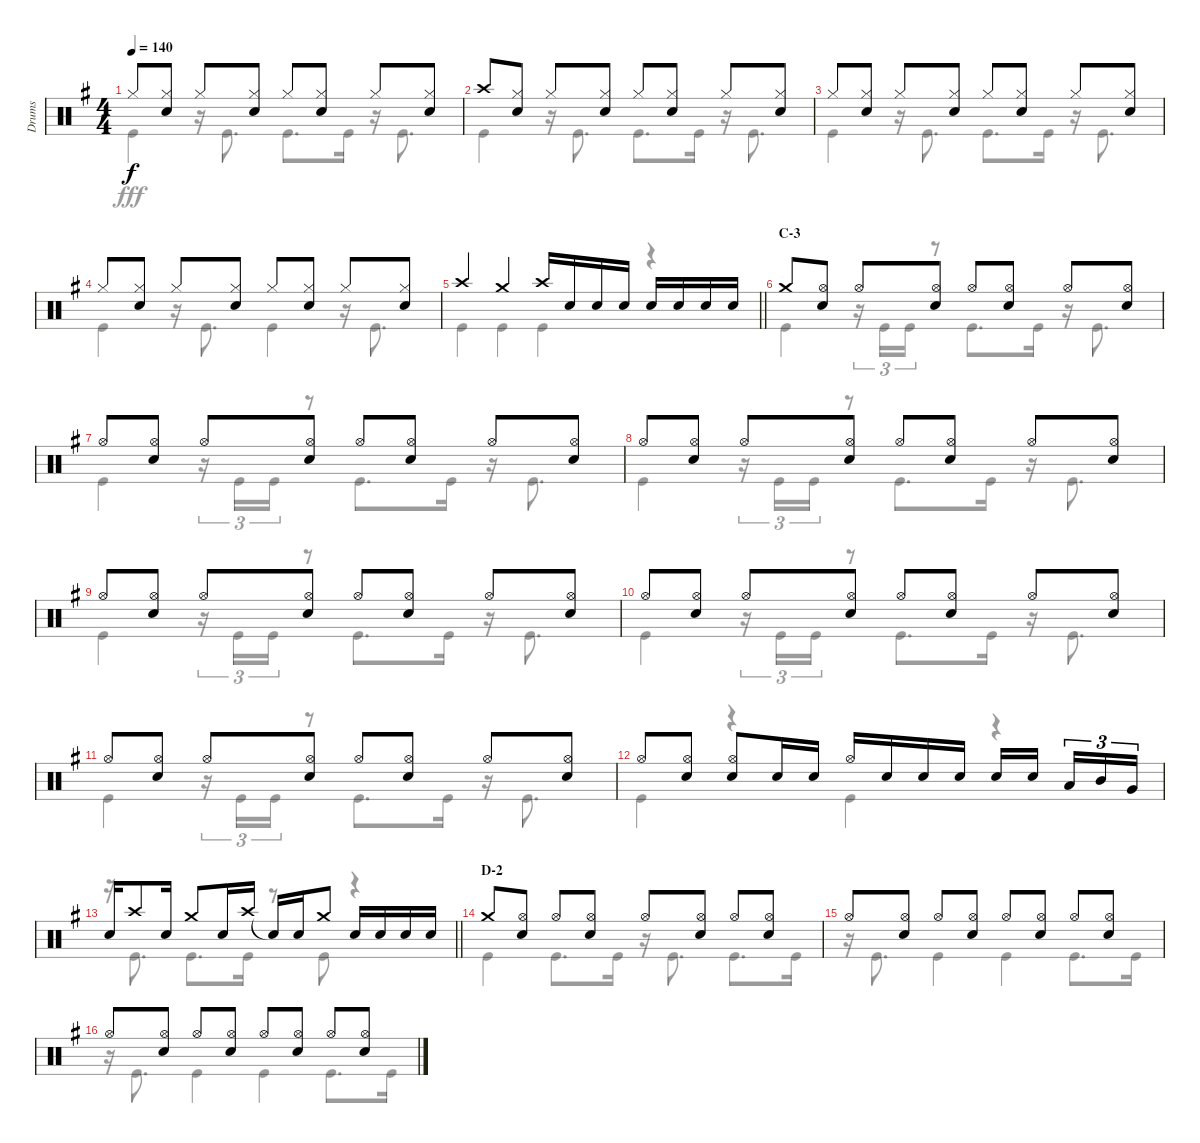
\track ("Drums" "Drums") {instrument percussion}
\staff {score}
\articulation defaults
\voice
\ts (4 4)
\tempo 140
\clef neutral
\ks g "Hi-Hat (closed)".8{dy f}
("Hi-Hat (closed)" "Snare (hit) 2").8 "Hi-Hat (closed)".8 ("Hi-Hat (closed)" "Snare (hit) 2").8 "Hi-Hat (closed)".8 ("Hi-Hat (closed)" "Snare (hit) 2").8 "Hi-Hat (closed)".8 ("Hi-Hat (closed)" "Snare (hit) 2").8 |
"Crash high (hit)".8 ("Hi-Hat (closed)" "Snare (hit) 2").8 "Hi-Hat (closed)".8 ("Hi-Hat (closed)" "Snare (hit) 2").8 "Hi-Hat (closed)".8 ("Hi-Hat (closed)" "Snare (hit) 2").8 "Hi-Hat (closed)".8 ("Hi-Hat (closed)" "Snare (hit) 2").8 |
"Hi-Hat (closed)".8 ("Hi-Hat (closed)" "Snare (hit) 2").8 "Hi-Hat (closed)".8 ("Hi-Hat (closed)" "Snare (hit) 2").8 "Hi-Hat (closed)".8 ("Hi-Hat (closed)" "Snare (hit) 2").8 "Hi-Hat (closed)".8 ("Hi-Hat (closed)" "Snare (hit) 2").8 |
"Hi-Hat (closed)".8 ("Hi-Hat (closed)" "Snare (hit) 2").8 "Hi-Hat (closed)".8 ("Hi-Hat (closed)" "Snare (hit) 2").8 "Hi-Hat (closed)".8 ("Hi-Hat (closed)" "Snare (hit) 2").8 "Hi-Hat (closed)".8 ("Hi-Hat (closed)" "Snare (hit) 2").8 |
\barLineRight lightlight "Crash high (hit)".4 "Crash medium (hit)".4 "Crash high (hit)".16 "Snare (hit) 2".16 "Snare (hit) 2".16 "Snare (hit) 2".16 "Snare (hit) 2".16 "Snare (hit) 2".16 "Snare (hit) 2".16 "Snare (hit) 2".16
|
\section ("" "C-3")
"Crash medium (hit)".8 ("Hi-Hat (open)" "Snare (hit) 2").8 "Hi-Hat (open)".8 ("Hi-Hat (open)" "Snare (hit) 2").8 "Hi-Hat (open)".8 ("Hi-Hat (open)" "Snare (hit) 2").8 "Hi-Hat (open)".8 ("Hi-Hat (open)" "Snare (hit) 2").8 |
"Hi-Hat (open)".8 ("Hi-Hat (open)" "Snare (hit) 2").8 "Hi-Hat (open)".8 ("Hi-Hat (open)" "Snare (hit) 2").8 "Hi-Hat (open)".8 ("Hi-Hat (open)" "Snare (hit) 2").8 "Hi-Hat (open)".8 ("Hi-Hat (open)" "Snare (hit) 2").8 |
"Hi-Hat (open)".8 ("Hi-Hat (open)" "Snare (hit) 2").8 "Hi-Hat (open)".8 ("Hi-Hat (open)" "Snare (hit) 2").8 "Hi-Hat (open)".8 ("Hi-Hat (open)" "Snare (hit) 2").8 "Hi-Hat (open)".8 ("Hi-Hat (open)" "Snare (hit) 2").8 |
"Hi-Hat (open)".8 ("Hi-Hat (open)" "Snare (hit) 2").8 "Hi-Hat (open)".8 ("Hi-Hat (open)" "Snare (hit) 2").8 "Hi-Hat (open)".8 ("Hi-Hat (open)" "Snare (hit) 2").8 "Hi-Hat (open)".8 ("Hi-Hat (open)" "Snare (hit) 2").8 |
"Hi-Hat (open)".8 ("Hi-Hat (open)" "Snare (hit) 2").8 "Hi-Hat (open)".8 ("Hi-Hat (open)" "Snare (hit) 2").8 "Hi-Hat (open)".8 ("Hi-Hat (open)" "Snare (hit) 2").8 "Hi-Hat (open)".8 ("Hi-Hat (open)" "Snare (hit) 2").8 |
"Hi-Hat (open)".8 ("Hi-Hat (open)" "Snare (hit) 2").8 "Hi-Hat (open)".8 ("Hi-Hat (open)" "Snare (hit) 2").8 "Hi-Hat (open)".8 ("Hi-Hat (open)" "Snare (hit) 2").8 "Hi-Hat (open)".8 ("Hi-Hat (open)" "Snare (hit) 2").8 |
"Hi-Hat (open)".8 ("Hi-Hat (open)" "Snare (hit) 2").8 ("Hi-Hat (open)" "Snare (hit) 2").8 "Snare (hit) 2".16 "Snare (hit) 2".16 "Hi-Hat (open)".16 "Snare (hit) 2".16 "Snare (hit) 2".16 "Snare (hit) 2".16 "Snare (hit) 2".16 "Snare (hit) 2".16{beam splitsecondary} "Low Tom (hit)".16{tu (3 2)} "Mid Tom (hit)".16{tu (3 2)} "Very Low Tom (hit)".16{tu (3 2)} |
\barLineRight lightlight "Snare (hit) 2".16 "Crash high (hit)".8 "Snare (hit) 2".16 "Crash medium (hit)".8 "Snare (hit) 2".16 "Crash high (hit)".16 "Snare (hit)"{t}.16 "Snare (hit) 2".16 "Crash medium (hit)".8 "Snare (hit) 2".16 "Snare (hit) 2".16 "Snare (hit) 2".16 "Snare (hit) 2".16
|
\section ("" "D-2")
"Crash medium (hit)".8 ("Hi-Hat (open)" "Snare (hit) 2").8 "Hi-Hat (open)".8 ("Hi-Hat (open)" "Snare (hit) 2").8 "Hi-Hat (open)".8 ("Hi-Hat (open)" "Snare (hit) 2").8 "Hi-Hat (open)".8 ("Hi-Hat (open)" "Snare (hit) 2").8 |
"Hi-Hat (open)".8 ("Hi-Hat (open)" "Snare (hit) 2").8 "Hi-Hat (open)".8 ("Hi-Hat (open)" "Snare (hit) 2").8 "Hi-Hat (open)".8 ("Hi-Hat (open)" "Snare (hit) 2").8 "Hi-Hat (open)".8 ("Hi-Hat (open)" "Snare (hit) 2").8 |
"Hi-Hat (open)".8 ("Hi-Hat (open)" "Snare (hit) 2").8 "Hi-Hat (open)".8 ("Hi-Hat (open)" "Snare (hit) 2").8 "Hi-Hat (open)".8 ("Hi-Hat (open)" "Snare (hit) 2").8 "Hi-Hat (open)".8 ("Hi-Hat (open)" "Snare (hit) 2").8
\voice
\clef neutral
\ottava regular
\simile none
\ks g "Kick (hit)".4{dy fff}
r.16 "Kick (hit)".8{d} "Kick (hit)".8{d} "Kick (hit)".16 r.16 "Kick (hit)".8{d} |
"Kick (hit)".4 r.16 "Kick (hit)".8{d} "Kick (hit)".8{d} "Kick (hit)".16 r.16 "Kick (hit)".8{d} |
"Kick (hit)".4 r.16 "Kick (hit)".8{d} "Kick (hit)".8{d} "Kick (hit)".16 r.16 "Kick (hit)".8{d} |
"Kick (hit)".4 r.16 "Kick (hit)".8{d} "Kick (hit)".4 r.16 "Kick (hit)".8{d} |
\barLineRight lightlight "Kick (hit)".4 "Kick (hit)".4 "Kick (hit)".4
r.4 |
"Kick (hit)".4 r.16{tu (3 2)} "Kick (hit)".16{tu (3 2)} "Kick (hit)".16{tu (3 2)} r.8 "Kick (hit)".8{d} "Kick (hit)".16 r.16 "Kick (hit)".8{d} |
"Kick (hit)".4 r.16{tu (3 2)} "Kick (hit)".16{tu (3 2)} "Kick (hit)".16{tu (3 2)} r.8 "Kick (hit)".8{d} "Kick (hit)".16 r.16 "Kick (hit)".8{d} |
"Kick (hit)".4 r.16{tu (3 2)} "Kick (hit)".16{tu (3 2)} "Kick (hit)".16{tu (3 2)} r.8 "Kick (hit)".8{d} "Kick (hit)".16 r.16 "Kick (hit)".8{d} |
"Kick (hit)".4 r.16{tu (3 2)} "Kick (hit)".16{tu (3 2)} "Kick (hit)".16{tu (3 2)} r.8 "Kick (hit)".8{d} "Kick (hit)".16 r.16 "Kick (hit)".8{d} |
"Kick (hit)".4 r.16{tu (3 2)} "Kick (hit)".16{tu (3 2)} "Kick (hit)".16{tu (3 2)} r.8 "Kick (hit)".8{d} "Kick (hit)".16 r.16 "Kick (hit)".8{d} |
"Kick (hit)".4 r.16{tu (3 2)} "Kick (hit)".16{tu (3 2)} "Kick (hit)".16{tu (3 2)} r.8 "Kick (hit)".8{d} "Kick (hit)".16 r.16 "Kick (hit)".8{d} |
"Kick (hit)".4 r.4 "Kick (hit)".4 r.4 |
\barLineRight lightlight
r.16 "Kick (hit)".8{d} "Kick (hit)".8{d} "Kick (hit)".16 r.8 "Kick (hit)".8 r.4 |
"Kick (hit)".4 "Kick (hit)".8{d} "Kick (hit)".16 r.16 "Kick (hit)".8{d} "Kick (hit)".8{d} "Kick (hit)".16 |
r.16 "Kick (hit)".8{d} "Kick (hit)".4 "Kick (hit)".4 "Kick (hit)".8{d} "Kick (hit)".16 |
r.16 "Kick (hit)".8{d} "Kick (hit)".4 "Kick (hit)".4 "Kick (hit)".8{d} "Kick (hit)".16
